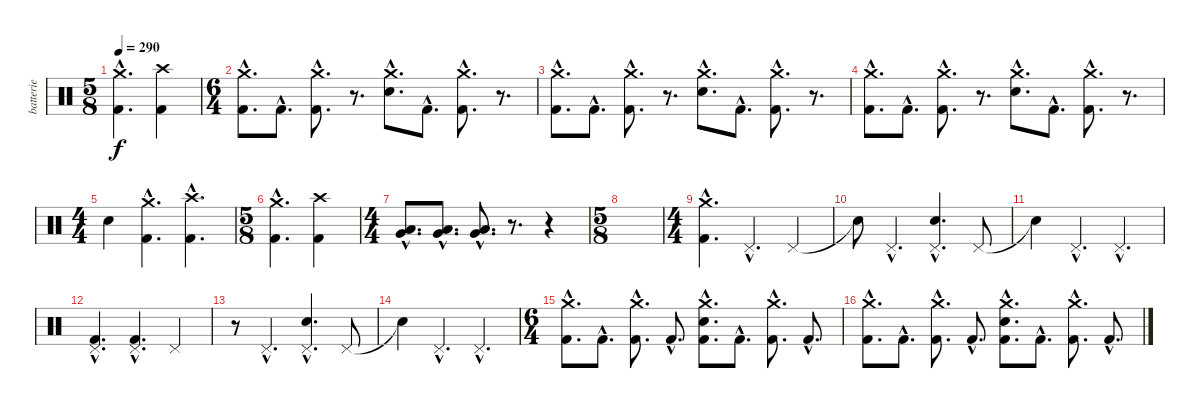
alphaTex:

\track ("batterie" "batterie") {instrument percussion}
\staff {score}
\articulation defaults
\ts (5 8)
\tempo 290
\clef neutral
\ks c
("Crash medium (hit)"{hac} "Kick (hit) 2"{hac}).4{d dy f} ("Crash high (hit)" "Kick (hit) 2").4 |
\ts (6 4)
("Crash medium (hit)"{hac} "Kick (hit) 2"{hac}).8{d} "Kick (hit) 2"{hac}.8{d} ("Crash medium (hit)"{hac} "Kick (hit) 2"{hac}).8{d} r.8{d} ("Crash medium (hit)"{hac} "Electric Snare (hit)"{hac}).8{d} "Kick (hit) 2"{hac}.8{d} ("Crash medium (hit)"{hac} "Kick (hit) 2"{hac}).8{d} r.8{d} |
("Crash medium (hit)"{hac} "Kick (hit) 2"{hac}).8{d} "Kick (hit) 2"{hac}.8{d} ("Crash medium (hit)"{hac} "Kick (hit) 2"{hac}).8{d} r.8{d} ("Crash medium (hit)"{hac} "Electric Snare (hit)"{hac}).8{d} "Kick (hit) 2"{hac}.8{d} ("Crash medium (hit)"{hac} "Kick (hit) 2"{hac}).8{d} r.8{d} |
("Crash medium (hit)"{hac} "Kick (hit) 2"{hac}).8{d} "Kick (hit) 2"{hac}.8{d} ("Crash medium (hit)"{hac} "Kick (hit) 2"{hac}).8{d} r.8{d} ("Crash medium (hit)"{hac} "Electric Snare (hit)"{hac}).8{d} "Kick (hit) 2"{hac}.8{d} ("Crash medium (hit)"{hac} "Kick (hit) 2"{hac}).8{d} r.8{d} |
\ts (4 4)
"Electric Snare (hit)".4 ("Crash medium (hit)"{hac} "Kick (hit) 2"{hac}).4{d} ("Crash high (hit)"{hac} "Kick (hit) 2"{hac}).4{d} |
\ts (5 8)
("Crash medium (hit)"{hac} "Kick (hit) 2"{hac}).4{d} ("Crash high (hit)" "Kick (hit) 2").4 |
\ts (4 4)
("Low Tom (hit)"{hac} "Very Low Tom (hit)"{hac}).8{d} ("Low Tom (hit)"{hac} "Very Low Tom (hit)"{hac}).8{d} ("Low Tom (hit)"{hac} "Very Low Tom (hit)"{hac}).8{d} r.8{d} r.4 |
\ts (5 8)
|
\ts (4 4)
("Crash medium (hit)"{hac} "Kick (hit) 2"{hac}).4{d} "Pedal Hi-Hat (hit)"{hac}.4{d} "Pedal Hi-Hat (hit)".4 |
"Snare (hit)"{t}.8 "Pedal Hi-Hat (hit)"{hac}.4{d} ("Pedal Hi-Hat (hit)"{hac} "Electric Snare (hit)"{hac}).4{d} "Pedal Hi-Hat (hit)".8 |
"Snare (hit)"{t}.4 "Pedal Hi-Hat (hit)"{hac}.4{d} "Pedal Hi-Hat (hit)"{hac}.4{d} |
("Pedal Hi-Hat (hit)"{hac} "Kick (hit) 2"{hac}).4{d} ("Pedal Hi-Hat (hit)"{hac} "Kick (hit) 2"{hac}).4{d} "Pedal Hi-Hat (hit)".4 |
r.8 "Pedal Hi-Hat (hit)"{hac}.4{d} ("Pedal Hi-Hat (hit)"{hac} "Electric Snare (hit)"{hac}).4{d} "Pedal Hi-Hat (hit)".8 |
"Snare (hit)"{t}.4 "Pedal Hi-Hat (hit)"{hac}.4{d} "Pedal Hi-Hat (hit)"{hac}.4{d} |
\ts (6 4)
("Crash medium (hit)"{hac} "Kick (hit) 2"{hac}).8{d} "Kick (hit) 2"{hac}.8{d} ("Crash medium (hit)"{hac} "Kick (hit) 2"{hac}).8{d} "Kick (hit) 2"{hac}.8{d} ("Crash medium (hit)"{hac} "Electric Snare (hit)"{hac} "Kick (hit) 2"{hac}).8{d} "Kick (hit) 2"{hac}.8{d} ("Crash medium (hit)"{hac} "Kick (hit) 2"{hac}).8{d} "Kick (hit) 2"{hac}.8{d} |
("Crash medium (hit)"{hac} "Kick (hit) 2"{hac}).8{d} "Kick (hit) 2"{hac}.8{d} ("Crash medium (hit)"{hac} "Kick (hit) 2"{hac}).8{d} "Kick (hit) 2"{hac}.8{d} ("Crash medium (hit)"{hac} "Electric Snare (hit)"{hac} "Kick (hit) 2"{hac}).8{d} "Kick (hit) 2"{hac}.8{d} ("Crash medium (hit)"{hac} "Kick (hit) 2"{hac}).8{d} "Kick (hit) 2"{hac}.8{d}
